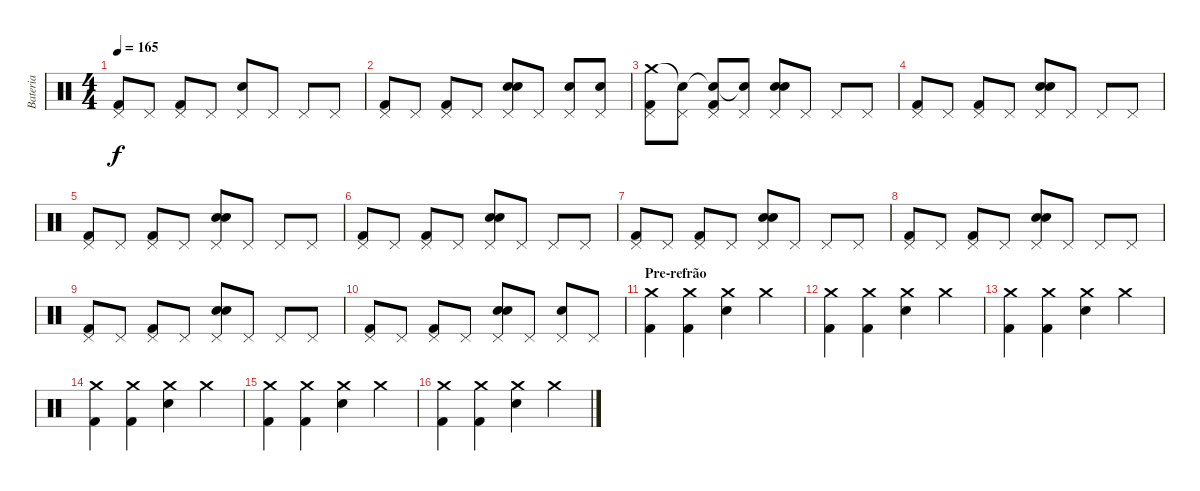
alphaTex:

\track ("Bateria" "Bateria") {instrument percussion}
\staff {score}
\articulation defaults
\ts (4 4)
\tempo 165
\clef neutral
\ks c
("Pedal Hi-Hat (hit)" "Kick (hit) 2").8{dy f} "Pedal Hi-Hat (hit)".8 ("Pedal Hi-Hat (hit)" "Kick (hit) 2").8 "Pedal Hi-Hat (hit)".8 ("Pedal Hi-Hat (hit)" "Electric Snare (hit)").8 "Pedal Hi-Hat (hit)".8 "Pedal Hi-Hat (hit)".8 "Pedal Hi-Hat (hit)".8 |
("Pedal Hi-Hat (hit)" "Kick (hit) 2").8 "Pedal Hi-Hat (hit)".8 ("Pedal Hi-Hat (hit)" "Kick (hit) 2").8 "Pedal Hi-Hat (hit)".8 ("Hand Clap (hit)" "Pedal Hi-Hat (hit)" "Electric Snare (hit)").8 "Pedal Hi-Hat (hit)".8 ("Hand Clap (hit)" "Pedal Hi-Hat (hit)").8 ("Hand Clap (hit)" "Pedal Hi-Hat (hit)").8 |
("Crash medium (hit)" "Pedal Hi-Hat (hit)" "Kick (hit) 2").8 ("Snare (hit)"{t} "Pedal Hi-Hat (hit)").8 ("Snare (hit)"{t} "Pedal Hi-Hat (hit)" "Kick (hit) 2").8 ("Snare (hit)"{t} "Pedal Hi-Hat (hit)").8 ("Hand Clap (hit)" "Pedal Hi-Hat (hit)" "Electric Snare (hit)").8 "Pedal Hi-Hat (hit)".8 "Pedal Hi-Hat (hit)".8 "Pedal Hi-Hat (hit)".8 |
("Pedal Hi-Hat (hit)" "Kick (hit) 2").8 "Pedal Hi-Hat (hit)".8 ("Pedal Hi-Hat (hit)" "Kick (hit) 2").8 "Pedal Hi-Hat (hit)".8 ("Hand Clap (hit)" "Pedal Hi-Hat (hit)" "Electric Snare (hit)").8 "Pedal Hi-Hat (hit)".8 "Pedal Hi-Hat (hit)".8 "Pedal Hi-Hat (hit)".8 |
("Pedal Hi-Hat (hit)" "Kick (hit) 2").8 "Pedal Hi-Hat (hit)".8 ("Pedal Hi-Hat (hit)" "Kick (hit) 2").8 "Pedal Hi-Hat (hit)".8 ("Hand Clap (hit)" "Pedal Hi-Hat (hit)" "Electric Snare (hit)").8 "Pedal Hi-Hat (hit)".8 "Pedal Hi-Hat (hit)".8 "Pedal Hi-Hat (hit)".8 |
("Pedal Hi-Hat (hit)" "Kick (hit) 2").8 "Pedal Hi-Hat (hit)".8 ("Pedal Hi-Hat (hit)" "Kick (hit) 2").8 "Pedal Hi-Hat (hit)".8 ("Hand Clap (hit)" "Pedal Hi-Hat (hit)" "Electric Snare (hit)").8 "Pedal Hi-Hat (hit)".8 "Pedal Hi-Hat (hit)".8 "Pedal Hi-Hat (hit)".8 |
("Pedal Hi-Hat (hit)" "Kick (hit) 2").8 "Pedal Hi-Hat (hit)".8 ("Pedal Hi-Hat (hit)" "Kick (hit) 2").8 "Pedal Hi-Hat (hit)".8 ("Hand Clap (hit)" "Pedal Hi-Hat (hit)" "Electric Snare (hit)").8 "Pedal Hi-Hat (hit)".8 "Pedal Hi-Hat (hit)".8 "Pedal Hi-Hat (hit)".8 |
("Pedal Hi-Hat (hit)" "Kick (hit) 2").8 "Pedal Hi-Hat (hit)".8 ("Pedal Hi-Hat (hit)" "Kick (hit) 2").8 "Pedal Hi-Hat (hit)".8 ("Hand Clap (hit)" "Pedal Hi-Hat (hit)" "Electric Snare (hit)").8 "Pedal Hi-Hat (hit)".8 "Pedal Hi-Hat (hit)".8 "Pedal Hi-Hat (hit)".8 |
("Pedal Hi-Hat (hit)" "Kick (hit) 2").8 "Pedal Hi-Hat (hit)".8 ("Pedal Hi-Hat (hit)" "Kick (hit) 2").8 "Pedal Hi-Hat (hit)".8 ("Hand Clap (hit)" "Pedal Hi-Hat (hit)" "Electric Snare (hit)").8 "Pedal Hi-Hat (hit)".8 "Pedal Hi-Hat (hit)".8 "Pedal Hi-Hat (hit)".8 |
("Pedal Hi-Hat (hit)" "Kick (hit) 2").8 "Pedal Hi-Hat (hit)".8 ("Pedal Hi-Hat (hit)" "Kick (hit) 2").8 "Pedal Hi-Hat (hit)".8 ("Hand Clap (hit)" "Pedal Hi-Hat (hit)" "Electric Snare (hit)").8 "Pedal Hi-Hat (hit)".8 ("Hand Clap (hit)" "Pedal Hi-Hat (hit)").8 "Pedal Hi-Hat (hit)".8 |
\section ("" "Pre-refrão")
("Crash medium (hit)" "Kick (hit) 2").4 ("Crash medium (hit)" "Kick (hit) 2").4 ("Crash medium (hit)" "Electric Snare (hit)").4 "Crash medium (hit)".4 |
("Crash medium (hit)" "Kick (hit) 2").4 ("Crash medium (hit)" "Kick (hit) 2").4 ("Crash medium (hit)" "Electric Snare (hit)").4 "Crash medium (hit)".4 |
("Crash medium (hit)" "Kick (hit) 2").4 ("Crash medium (hit)" "Kick (hit) 2").4 ("Crash medium (hit)" "Electric Snare (hit)").4 "Crash medium (hit)".4 |
("Crash medium (hit)" "Kick (hit) 2").4 ("Crash medium (hit)" "Kick (hit) 2").4 ("Crash medium (hit)" "Electric Snare (hit)").4 "Crash medium (hit)".4 |
("Crash medium (hit)" "Kick (hit) 2").4 ("Crash medium (hit)" "Kick (hit) 2").4 ("Crash medium (hit)" "Electric Snare (hit)").4 "Crash medium (hit)".4 |
("Crash medium (hit)" "Kick (hit) 2").4 ("Crash medium (hit)" "Kick (hit) 2").4 ("Crash medium (hit)" "Electric Snare (hit)").4 "Crash medium (hit)".4
